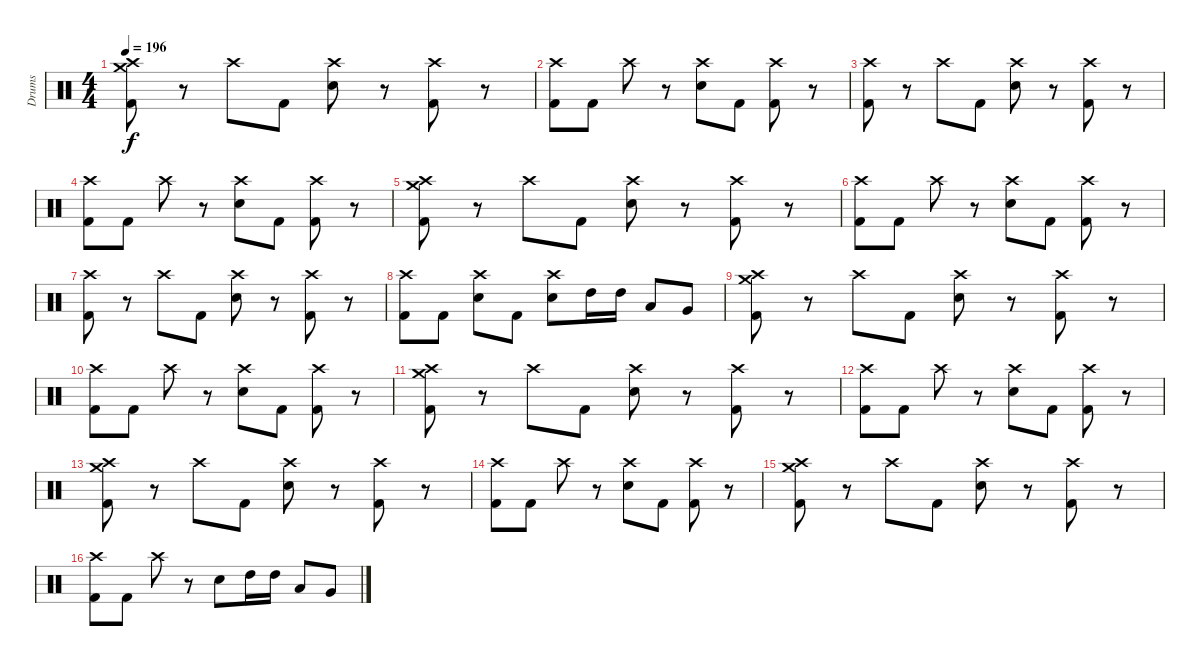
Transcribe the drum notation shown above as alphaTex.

\track ("Drums" "Drums") {instrument percussion}
\staff {score}
\articulation defaults
\ts (4 4)
\tempo 196
\clef neutral
\ks c
("Crash medium (hit)" "Crash high (hit)" "Kick (hit) 2").8{dy f} r.8 "Crash high (hit)".8 "Kick (hit) 2".8 ("Crash high (hit)" "Electric Snare (hit)").8 r.8 ("Crash high (hit)" "Kick (hit) 2").8 r.8 |
("Crash high (hit)" "Kick (hit) 2").8 "Kick (hit) 2".8 "Crash high (hit)".8 r.8 ("Crash high (hit)" "Electric Snare (hit)").8 "Kick (hit) 2".8 ("Crash high (hit)" "Kick (hit) 2").8 r.8 |
("Crash high (hit)" "Kick (hit) 2").8 r.8 "Crash high (hit)".8 "Kick (hit) 2".8 ("Crash high (hit)" "Electric Snare (hit)").8 r.8 ("Crash high (hit)" "Kick (hit) 2").8 r.8 |
("Crash high (hit)" "Kick (hit) 2").8 "Kick (hit) 2".8 "Crash high (hit)".8 r.8 ("Crash high (hit)" "Electric Snare (hit)").8 "Kick (hit) 2".8 ("Crash high (hit)" "Kick (hit) 2").8 r.8 |
("Crash medium (hit)" "Crash high (hit)" "Kick (hit) 2").8 r.8 "Crash high (hit)".8 "Kick (hit) 2".8 ("Crash high (hit)" "Electric Snare (hit)").8 r.8 ("Crash high (hit)" "Kick (hit) 2").8 r.8 |
("Crash high (hit)" "Kick (hit) 2").8 "Kick (hit) 2".8 "Crash high (hit)".8 r.8 ("Crash high (hit)" "Electric Snare (hit)").8 "Kick (hit) 2".8 ("Crash high (hit)" "Kick (hit) 2").8 r.8 |
("Crash high (hit)" "Kick (hit) 2").8 r.8 "Crash high (hit)".8 "Kick (hit) 2".8 ("Crash high (hit)" "Electric Snare (hit)").8 r.8 ("Crash high (hit)" "Kick (hit) 2").8 r.8 |
("Crash high (hit)" "Kick (hit) 2").8 "Kick (hit) 2".8 ("Crash high (hit)" "Electric Snare (hit)").8 "Kick (hit) 2".8 ("Crash high (hit)" "Electric Snare (hit)").8 "High Tom (hit)".16 "High Tom (hit)".16 "Low Tom (hit)".8 "Very Low Tom (hit)".8 |
("Crash medium (hit)" "Crash high (hit)" "Kick (hit) 2").8 r.8 "Crash high (hit)".8 "Kick (hit) 2".8 ("Crash high (hit)" "Electric Snare (hit)").8 r.8 ("Crash high (hit)" "Kick (hit) 2").8 r.8 |
("Crash high (hit)" "Kick (hit) 2").8 "Kick (hit) 2".8 "Crash high (hit)".8 r.8 ("Crash high (hit)" "Electric Snare (hit)").8 "Kick (hit) 2".8 ("Crash high (hit)" "Kick (hit) 2").8 r.8 |
("Crash medium (hit)" "Crash high (hit)" "Kick (hit) 2").8 r.8 "Crash high (hit)".8 "Kick (hit) 2".8 ("Crash high (hit)" "Electric Snare (hit)").8 r.8 ("Crash high (hit)" "Kick (hit) 2").8 r.8 |
("Crash high (hit)" "Kick (hit) 2").8 "Kick (hit) 2".8 "Crash high (hit)".8 r.8 ("Crash high (hit)" "Electric Snare (hit)").8 "Kick (hit) 2".8 ("Crash high (hit)" "Kick (hit) 2").8 r.8 |
("Crash medium (hit)" "Crash high (hit)" "Kick (hit) 2").8 r.8 "Crash high (hit)".8 "Kick (hit) 2".8 ("Crash high (hit)" "Electric Snare (hit)").8 r.8 ("Crash high (hit)" "Kick (hit) 2").8 r.8 |
("Crash high (hit)" "Kick (hit) 2").8 "Kick (hit) 2".8 "Crash high (hit)".8 r.8 ("Crash high (hit)" "Electric Snare (hit)").8 "Kick (hit) 2".8 ("Crash high (hit)" "Kick (hit) 2").8 r.8 |
("Crash medium (hit)" "Crash high (hit)" "Kick (hit) 2").8 r.8 "Crash high (hit)".8 "Kick (hit) 2".8 ("Crash high (hit)" "Electric Snare (hit)").8 r.8 ("Crash high (hit)" "Kick (hit) 2").8 r.8 |
("Crash high (hit)" "Kick (hit) 2").8 "Kick (hit) 2".8 "Crash high (hit)".8 r.8 "Electric Snare (hit)".8 "High Tom (hit)".16 "High Tom (hit)".16 "Low Tom (hit)".8 "Very Low Tom (hit)".8
